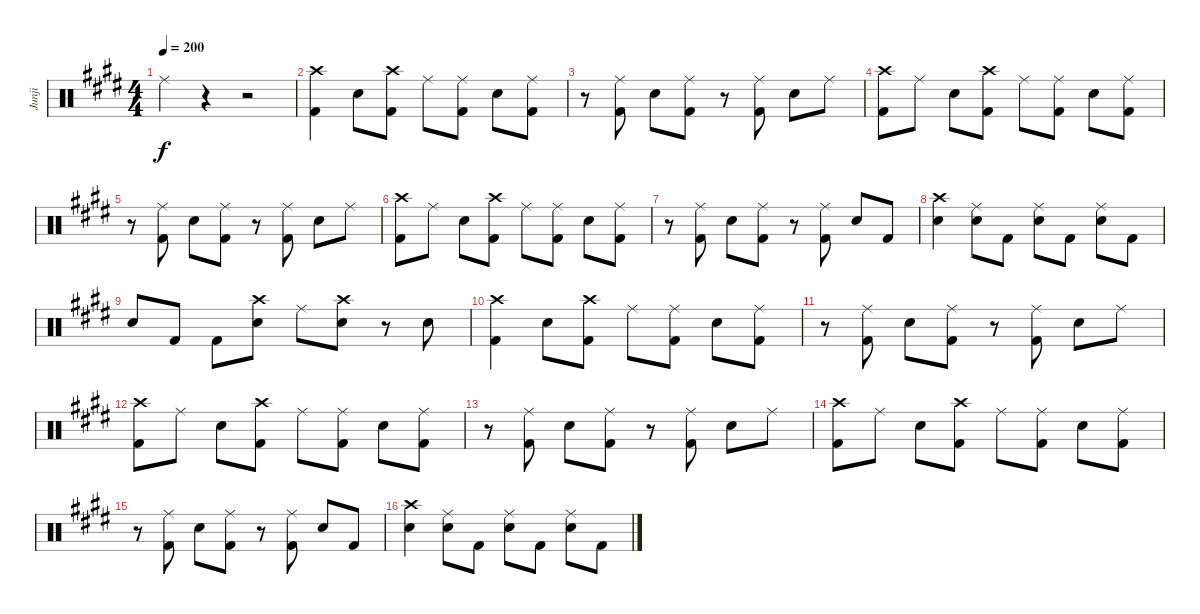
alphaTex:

\track ("Junji" "Junji") {instrument percussion}
\staff {score}
\articulation defaults
\ts (4 4)
\tempo 200
\clef neutral
\ks e "Ride (middle)".4{dy f}
r.4 r.2 |
("Crash high (hit)" "Kick (hit) 2").4 "Snare (hit) 2".8 ("Crash high (hit)" "Kick (hit) 2").8 "Ride (middle)".8 ("Ride (middle)" "Kick (hit) 2").8 "Snare (hit) 2".8 ("Ride (middle)" "Kick (hit) 2").8 |
r.8 ("Ride (middle)" "Kick (hit) 2").8 "Snare (hit) 2".8 ("Ride (middle)" "Kick (hit) 2").8 r.8 ("Ride (middle)" "Kick (hit) 2").8 "Snare (hit) 2".8 "Ride (middle)".8 |
("Crash high (hit)" "Kick (hit) 2").8 "Ride (middle)".8 "Snare (hit) 2".8 ("Crash high (hit)" "Kick (hit) 2").8 "Ride (middle)".8 ("Ride (middle)" "Kick (hit) 2").8 "Snare (hit) 2".8 ("Ride (middle)" "Kick (hit) 2").8 |
r.8 ("Ride (middle)" "Kick (hit) 2").8 "Snare (hit) 2".8 ("Ride (middle)" "Kick (hit) 2").8 r.8 ("Ride (middle)" "Kick (hit) 2").8 "Snare (hit) 2".8 "Ride (middle)".8 |
("Crash high (hit)" "Kick (hit) 2").8 "Ride (middle)".8 "Snare (hit) 2".8 ("Crash high (hit)" "Kick (hit) 2").8 "Ride (middle)".8 ("Ride (middle)" "Kick (hit) 2").8 "Snare (hit) 2".8 ("Ride (middle)" "Kick (hit) 2").8 |
r.8 ("Ride (middle)" "Kick (hit) 2").8 "Snare (hit) 2".8 ("Ride (middle)" "Kick (hit) 2").8 r.8 ("Ride (middle)" "Kick (hit) 2").8 "Snare (hit) 2".8 "Kick (hit) 2".8 |
("Crash high (hit)" "Snare (hit) 2").4 ("Ride (middle)" "Snare (hit) 2").8 "Kick (hit) 2".8 ("Ride (middle)" "Snare (hit) 2").8 "Kick (hit) 2".8 ("Ride (middle)" "Snare (hit) 2").8 "Kick (hit) 2".8 |
"Snare (hit) 2".8 "Kick (hit) 2".8 "Kick (hit) 2".8 ("Crash high (hit)" "Snare (hit) 2").8 "Ride (middle)".8 ("Crash high (hit)" "Snare (hit) 2").8 r.8 "Snare (hit) 2".8 |
("Crash high (hit)" "Kick (hit) 2").4 "Snare (hit) 2".8 ("Crash high (hit)" "Kick (hit) 2").8 "Ride (middle)".8 ("Ride (middle)" "Kick (hit) 2").8 "Snare (hit) 2".8 ("Ride (middle)" "Kick (hit) 2").8 |
r.8 ("Ride (middle)" "Kick (hit) 2").8 "Snare (hit) 2".8 ("Ride (middle)" "Kick (hit) 2").8 r.8 ("Ride (middle)" "Kick (hit) 2").8 "Snare (hit) 2".8 "Ride (middle)".8 |
("Crash high (hit)" "Kick (hit) 2").8 "Ride (middle)".8 "Snare (hit) 2".8 ("Crash high (hit)" "Kick (hit) 2").8 "Ride (middle)".8 ("Ride (middle)" "Kick (hit) 2").8 "Snare (hit) 2".8 ("Ride (middle)" "Kick (hit) 2").8 |
r.8 ("Ride (middle)" "Kick (hit) 2").8 "Snare (hit) 2".8 ("Ride (middle)" "Kick (hit) 2").8 r.8 ("Ride (middle)" "Kick (hit) 2").8 "Snare (hit) 2".8 "Ride (middle)".8 |
("Crash high (hit)" "Kick (hit) 2").8 "Ride (middle)".8 "Snare (hit) 2".8 ("Crash high (hit)" "Kick (hit) 2").8 "Ride (middle)".8 ("Ride (middle)" "Kick (hit) 2").8 "Snare (hit) 2".8 ("Ride (middle)" "Kick (hit) 2").8 |
r.8 ("Ride (middle)" "Kick (hit) 2").8 "Snare (hit) 2".8 ("Ride (middle)" "Kick (hit) 2").8 r.8 ("Ride (middle)" "Kick (hit) 2").8 "Snare (hit) 2".8 "Kick (hit) 2".8 |
("Crash high (hit)" "Snare (hit) 2").4 ("Ride (middle)" "Snare (hit) 2").8 "Kick (hit) 2".8 ("Ride (middle)" "Snare (hit) 2").8 "Kick (hit) 2".8 ("Ride (middle)" "Snare (hit) 2").8 "Kick (hit) 2".8
